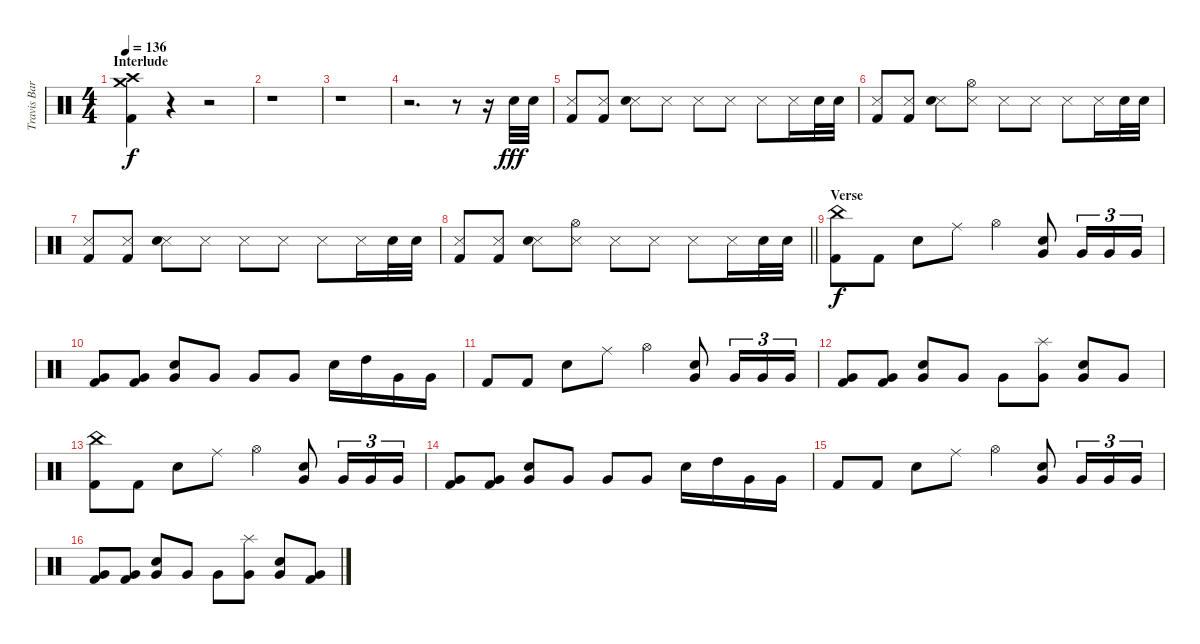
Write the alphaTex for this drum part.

\track ("Travis Barker - Drums" "Travis Bar") {instrument percussion}
\staff {score}
\articulation defaults
\ts (4 4)
\section ("" "Interlude")
\tempo 136
\clef neutral
\ks c
("Crash high (hit)" "Crash medium (hit)" "Kick (hit) 2").4{dy f} r.4 r.2 |
r.1 |
r.1 |
r.2{d} r.8 r.16 "Snare (hit) 2".32{dy fff} "Snare (hit) 2".32 |
("Kick (hit) 2" "Snare (side stick) 3").8 ("Snare (side stick) 3" "Kick (hit) 2").8 ("Snare (side stick) 3" "Snare (hit) 2").8 "Snare (side stick) 3".8 "Snare (side stick) 3".8 "Snare (side stick) 3".8 "Snare (side stick) 3".8 "Snare (side stick) 3".16 "Snare (hit) 2".32 "Snare (hit) 2".32 |
("Kick (hit) 2" "Snare (side stick) 3").8 ("Snare (side stick) 3" "Kick (hit) 2").8 ("Snare (side stick) 3" "Snare (hit) 2").8 ("Snare (side stick) 3" "Hi-Hat (open)").8 "Snare (side stick) 3".8 "Snare (side stick) 3".8 "Snare (side stick) 3".8 "Snare (side stick) 3".16 "Snare (hit) 2".32 "Snare (hit) 2".32 |
("Kick (hit) 2" "Snare (side stick) 3").8 ("Snare (side stick) 3" "Kick (hit) 2").8 ("Snare (side stick) 3" "Snare (hit) 2").8 "Snare (side stick) 3".8 "Snare (side stick) 3".8 "Snare (side stick) 3".8 "Snare (side stick) 3".8 "Snare (side stick) 3".16 "Snare (hit) 2".32 "Snare (hit) 2".32 |
\barLineRight lightlight
("Kick (hit) 2" "Snare (side stick) 3").8 ("Snare (side stick) 3" "Kick (hit) 2").8 ("Snare (side stick) 3" "Snare (hit) 2").8 ("Snare (side stick) 3" "Hi-Hat (open)").8 "Snare (side stick) 3".8 "Snare (side stick) 3".8 "Snare (side stick) 3".8 "Snare (side stick) 3".16 "Snare (hit) 2".32 "Snare (hit) 2".32 |
\section ("" "Verse")
("China (hit)" "Kick (hit) 2").8{dy f} "Kick (hit) 2".8 "Snare (hit) 2".8 "Ride (middle)".8 "Hi-Hat (open)".4 ("Snare (hit) 2" "Very Low Tom (hit)").8 "Very Low Tom (hit)".16{tu (3 2)} "Very Low Tom (hit)".16{tu (3 2)} "Very Low Tom (hit)".16{tu (3 2)} |
("Very Low Tom (hit)" "Kick (hit) 2").8 ("Very Low Tom (hit)" "Kick (hit) 2").8 ("Snare (hit) 2" "Very Low Tom (hit)").8 "Very Low Tom (hit)".8 "Very Low Tom (hit)".8 "Very Low Tom (hit)".8 "Snare (hit) 2".16 "High Tom (hit)".16 "Very Low Tom (hit)".16 "Very Low Tom (hit)".16 |
"Kick (hit) 2".8 "Kick (hit) 2".8 "Snare (hit) 2".8 "Ride (middle)".8 "Hi-Hat (open)".4 ("Snare (hit) 2" "Very Low Tom (hit)").8 "Very Low Tom (hit)".16{tu (3 2)} "Very Low Tom (hit)".16{tu (3 2)} "Very Low Tom (hit)".16{tu (3 2)} |
("Very Low Tom (hit)" "Kick (hit) 2").8 ("Very Low Tom (hit)" "Kick (hit) 2").8 ("Snare (hit) 2" "Very Low Tom (hit)").8 "Very Low Tom (hit)".8 "Very Low Tom (hit)".8 ("Splash (hit)" "Very Low Tom (hit)").8 ("Snare (hit) 2" "Very Low Tom (hit)").8 "Very Low Tom (hit)".8 |
("China (hit)" "Kick (hit) 2").8 "Kick (hit) 2".8 "Snare (hit) 2".8 "Ride (middle)".8 "Hi-Hat (open)".4 ("Snare (hit) 2" "Very Low Tom (hit)").8 "Very Low Tom (hit)".16{tu (3 2)} "Very Low Tom (hit)".16{tu (3 2)} "Very Low Tom (hit)".16{tu (3 2)} |
("Very Low Tom (hit)" "Kick (hit) 2").8 ("Very Low Tom (hit)" "Kick (hit) 2").8 ("Snare (hit) 2" "Very Low Tom (hit)").8 "Very Low Tom (hit)".8 "Very Low Tom (hit)".8 "Very Low Tom (hit)".8 "Snare (hit) 2".16 "High Tom (hit)".16 "Very Low Tom (hit)".16 "Very Low Tom (hit)".16 |
"Kick (hit) 2".8 "Kick (hit) 2".8 "Snare (hit) 2".8 "Ride (middle)".8 "Hi-Hat (open)".4 ("Snare (hit) 2" "Very Low Tom (hit)").8 "Very Low Tom (hit)".16{tu (3 2)} "Very Low Tom (hit)".16{tu (3 2)} "Very Low Tom (hit)".16{tu (3 2)} |
("Very Low Tom (hit)" "Kick (hit) 2").8 ("Very Low Tom (hit)" "Kick (hit) 2").8 ("Snare (hit) 2" "Very Low Tom (hit)").8 "Very Low Tom (hit)".8 "Very Low Tom (hit)".8 ("Splash (hit)" "Very Low Tom (hit)").8 ("Snare (hit) 2" "Very Low Tom (hit)").8 ("Very Low Tom (hit)" "Kick (hit) 2").8
